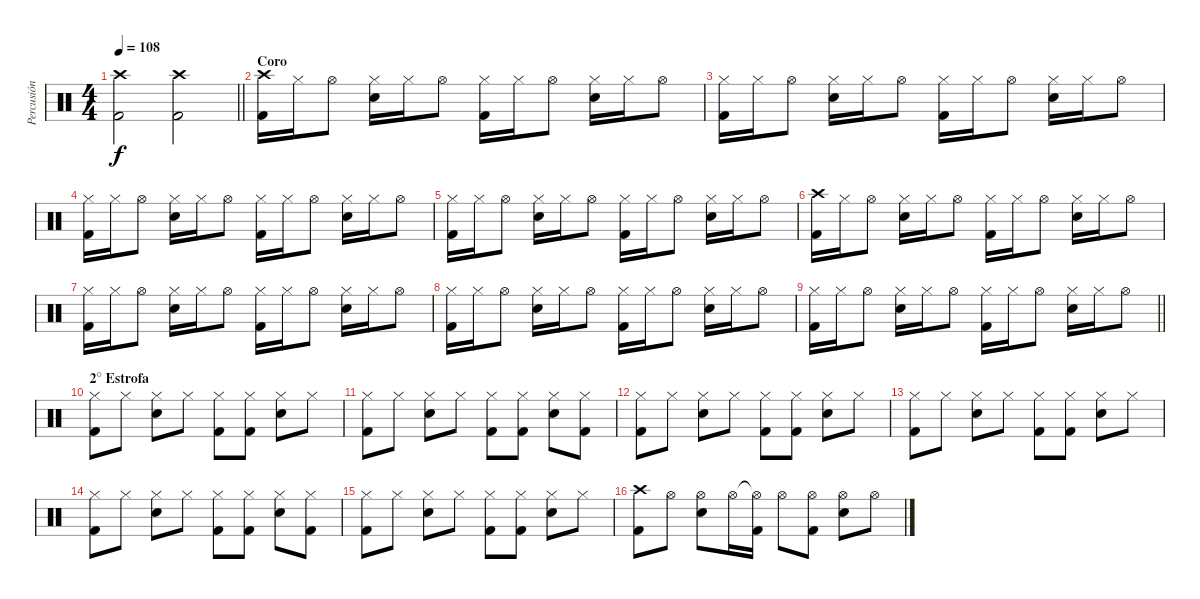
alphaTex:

\track ("Percusión" "Percusión") {instrument percussion}
\staff {score}
\articulation defaults
\ts (4 4)
\tempo 108
\clef neutral
\barLineRight lightlight
\ks c
("Crash high (hit)" "Kick (hit) 2").2{dy f} ("Crash high (hit)" "Kick (hit) 2").2 |
\section ("" "Coro")
("Crash high (hit)" "Kick (hit) 2").16 "Hi-Hat (closed)".16 "Hi-Hat (open)".8 ("Hi-Hat (closed)" "Electric Snare (hit)").16 "Hi-Hat (closed)".16 "Hi-Hat (open)".8 ("Hi-Hat (closed)" "Kick (hit) 2").16 "Hi-Hat (closed)".16 "Hi-Hat (open)".8 ("Hi-Hat (closed)" "Electric Snare (hit)").16 "Hi-Hat (closed)".16 "Hi-Hat (open)".8 |
("Hi-Hat (closed)" "Kick (hit) 2").16 "Hi-Hat (closed)".16 "Hi-Hat (open)".8 ("Hi-Hat (closed)" "Electric Snare (hit)").16 "Hi-Hat (closed)".16 "Hi-Hat (open)".8 ("Hi-Hat (closed)" "Kick (hit) 2").16 "Hi-Hat (closed)".16 "Hi-Hat (open)".8 ("Hi-Hat (closed)" "Electric Snare (hit)").16 "Hi-Hat (closed)".16 "Hi-Hat (open)".8 |
("Hi-Hat (closed)" "Kick (hit) 2").16 "Hi-Hat (closed)".16 "Hi-Hat (open)".8 ("Hi-Hat (closed)" "Electric Snare (hit)").16 "Hi-Hat (closed)".16 "Hi-Hat (open)".8 ("Hi-Hat (closed)" "Kick (hit) 2").16 "Hi-Hat (closed)".16 "Hi-Hat (open)".8 ("Hi-Hat (closed)" "Electric Snare (hit)").16 "Hi-Hat (closed)".16 "Hi-Hat (open)".8 |
("Hi-Hat (closed)" "Kick (hit) 2").16 "Hi-Hat (closed)".16 "Hi-Hat (open)".8 ("Hi-Hat (closed)" "Electric Snare (hit)").16 "Hi-Hat (closed)".16 "Hi-Hat (open)".8 ("Hi-Hat (closed)" "Kick (hit) 2").16 "Hi-Hat (closed)".16 "Hi-Hat (open)".8 ("Hi-Hat (closed)" "Electric Snare (hit)").16 "Hi-Hat (closed)".16 "Hi-Hat (open)".8 |
("Crash high (hit)" "Kick (hit) 2").16 "Hi-Hat (closed)".16 "Hi-Hat (open)".8 ("Hi-Hat (closed)" "Electric Snare (hit)").16 "Hi-Hat (closed)".16 "Hi-Hat (open)".8 ("Hi-Hat (closed)" "Kick (hit) 2").16 "Hi-Hat (closed)".16 "Hi-Hat (open)".8 ("Hi-Hat (closed)" "Electric Snare (hit)").16 "Hi-Hat (closed)".16 "Hi-Hat (open)".8 |
("Hi-Hat (closed)" "Kick (hit) 2").16 "Hi-Hat (closed)".16 "Hi-Hat (open)".8 ("Hi-Hat (closed)" "Electric Snare (hit)").16 "Hi-Hat (closed)".16 "Hi-Hat (open)".8 ("Hi-Hat (closed)" "Kick (hit) 2").16 "Hi-Hat (closed)".16 "Hi-Hat (open)".8 ("Hi-Hat (closed)" "Electric Snare (hit)").16 "Hi-Hat (closed)".16 "Hi-Hat (open)".8 |
("Hi-Hat (closed)" "Kick (hit) 2").16 "Hi-Hat (closed)".16 "Hi-Hat (open)".8 ("Hi-Hat (closed)" "Electric Snare (hit)").16 "Hi-Hat (closed)".16 "Hi-Hat (open)".8 ("Hi-Hat (closed)" "Kick (hit) 2").16 "Hi-Hat (closed)".16 "Hi-Hat (open)".8 ("Hi-Hat (closed)" "Electric Snare (hit)").16 "Hi-Hat (closed)".16 "Hi-Hat (open)".8 |
\barLineRight lightlight
("Hi-Hat (closed)" "Kick (hit) 2").16 "Hi-Hat (closed)".16 "Hi-Hat (open)".8 ("Hi-Hat (closed)" "Electric Snare (hit)").16 "Hi-Hat (closed)".16 "Hi-Hat (open)".8 ("Hi-Hat (closed)" "Kick (hit) 2").16 "Hi-Hat (closed)".16 "Hi-Hat (open)".8 ("Hi-Hat (closed)" "Electric Snare (hit)").16 "Hi-Hat (closed)".16 "Hi-Hat (open)".8 |
\section ("" "2° Estrofa")
("Hi-Hat (closed)" "Kick (hit) 2").8 "Hi-Hat (closed)".8 ("Hi-Hat (closed)" "Electric Snare (hit)").8 "Hi-Hat (closed)".8 ("Hi-Hat (closed)" "Kick (hit) 2").8 ("Hi-Hat (closed)" "Kick (hit) 2").8 ("Hi-Hat (closed)" "Electric Snare (hit)").8 "Hi-Hat (closed)".8 |
("Hi-Hat (closed)" "Kick (hit) 2").8 "Hi-Hat (closed)".8 ("Hi-Hat (closed)" "Electric Snare (hit)").8 "Hi-Hat (closed)".8 ("Hi-Hat (closed)" "Kick (hit) 2").8 ("Hi-Hat (closed)" "Kick (hit) 2").8 ("Hi-Hat (closed)" "Electric Snare (hit)").8 ("Hi-Hat (closed)" "Kick (hit) 2").8 |
("Hi-Hat (closed)" "Kick (hit) 2").8 "Hi-Hat (closed)".8 ("Hi-Hat (closed)" "Electric Snare (hit)").8 "Hi-Hat (closed)".8 ("Hi-Hat (closed)" "Kick (hit) 2").8 ("Hi-Hat (closed)" "Kick (hit) 2").8 ("Hi-Hat (closed)" "Electric Snare (hit)").8 "Hi-Hat (closed)".8 |
("Hi-Hat (closed)" "Kick (hit) 2").8 "Hi-Hat (closed)".8 ("Hi-Hat (closed)" "Electric Snare (hit)").8 "Hi-Hat (closed)".8 ("Hi-Hat (closed)" "Kick (hit) 2").8 ("Hi-Hat (closed)" "Kick (hit) 2").8 ("Hi-Hat (closed)" "Electric Snare (hit)").8 "Hi-Hat (closed)".8 |
("Hi-Hat (closed)" "Kick (hit) 2").8 "Hi-Hat (closed)".8 ("Hi-Hat (closed)" "Electric Snare (hit)").8 "Hi-Hat (closed)".8 ("Hi-Hat (closed)" "Kick (hit) 2").8 ("Hi-Hat (closed)" "Kick (hit) 2").8 ("Hi-Hat (closed)" "Electric Snare (hit)").8 ("Hi-Hat (closed)" "Kick (hit) 2").8 |
("Hi-Hat (closed)" "Kick (hit) 2").8 "Hi-Hat (closed)".8 ("Hi-Hat (closed)" "Electric Snare (hit)").8 "Hi-Hat (closed)".8 ("Hi-Hat (closed)" "Kick (hit) 2").8 ("Hi-Hat (closed)" "Kick (hit) 2").8 ("Hi-Hat (closed)" "Electric Snare (hit)").8 "Hi-Hat (closed)".8 |
("Crash high (hit)" "Kick (hit) 2").8 "Hi-Hat (open)".8 ("Hi-Hat (open)" "Electric Snare (hit)").8 "Hi-Hat (open)".16 ("Hi-Hat (open)"{t} "Kick (hit) 2").16 "Hi-Hat (open)".8 ("Hi-Hat (open)" "Kick (hit) 2").8 ("Hi-Hat (open)" "Electric Snare (hit)").8 "Hi-Hat (open)".8
